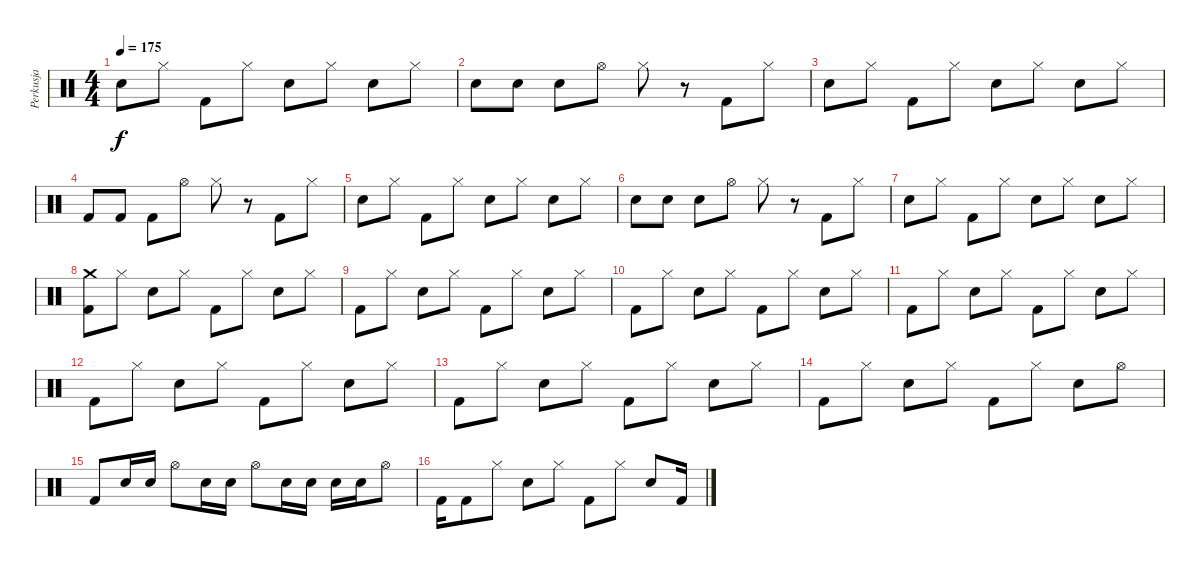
\track ("Perkusja" "Perkusja") {instrument percussion}
\staff {score}
\articulation defaults
\ts (4 4)
\tempo 175
\clef neutral
\ks c "Snare (hit) 2".8{dy f} "Hi-Hat (closed)".8 "Kick (hit) 2".8 "Hi-Hat (closed)".8 "Snare (hit) 2".8 "Hi-Hat (closed)".8 "Snare (hit) 2".8 "Hi-Hat (closed)".8
|
"Snare (hit) 2".8 "Snare (hit) 2".8 "Snare (hit) 2".8 "Hi-Hat (open)".8 "Hi-Hat (closed)".8 r.8 "Kick (hit) 2".8 "Hi-Hat (closed)".8 |
"Snare (hit) 2".8 "Hi-Hat (closed)".8 "Kick (hit) 2".8 "Hi-Hat (closed)".8 "Snare (hit) 2".8 "Hi-Hat (closed)".8 "Snare (hit) 2".8 "Hi-Hat (closed)".8 |
"Kick (hit) 2".8 "Kick (hit) 2".8 "Kick (hit) 2".8 "Hi-Hat (open)".8 "Hi-Hat (closed)".8 r.8 "Kick (hit) 2".8 "Hi-Hat (closed)".8 |
"Snare (hit) 2".8 "Hi-Hat (closed)".8 "Kick (hit) 2".8 "Hi-Hat (closed)".8 "Snare (hit) 2".8 "Hi-Hat (closed)".8 "Snare (hit) 2".8 "Hi-Hat (closed)".8 |
"Snare (hit) 2".8 "Snare (hit) 2".8 "Snare (hit) 2".8 "Hi-Hat (open)".8 "Hi-Hat (closed)".8 r.8 "Kick (hit) 2".8 "Hi-Hat (closed)".8 |
"Snare (hit) 2".8 "Hi-Hat (closed)".8 "Kick (hit) 2".8 "Hi-Hat (closed)".8 "Snare (hit) 2".8 "Hi-Hat (closed)".8 "Snare (hit) 2".8 "Hi-Hat (closed)".8 |
("Kick (hit) 2" "Crash medium (hit)").8 "Hi-Hat (closed)".8 "Snare (hit) 2".8 "Hi-Hat (closed)".8 "Kick (hit) 2".8 "Hi-Hat (closed)".8 "Snare (hit) 2".8 "Hi-Hat (closed)".8 |
"Kick (hit) 2".8 "Hi-Hat (closed)".8 "Snare (hit) 2".8 "Hi-Hat (closed)".8 "Kick (hit) 2".8 "Hi-Hat (closed)".8 "Snare (hit) 2".8 "Hi-Hat (closed)".8 |
"Kick (hit) 2".8 "Hi-Hat (closed)".8 "Snare (hit) 2".8 "Hi-Hat (closed)".8 "Kick (hit) 2".8 "Hi-Hat (closed)".8 "Snare (hit) 2".8 "Hi-Hat (closed)".8 |
"Kick (hit) 2".8 "Hi-Hat (closed)".8 "Snare (hit) 2".8 "Hi-Hat (closed)".8 "Kick (hit) 2".8 "Hi-Hat (closed)".8 "Snare (hit) 2".8 "Hi-Hat (closed)".8 |
"Kick (hit) 2".8 "Hi-Hat (closed)".8 "Snare (hit) 2".8 "Hi-Hat (closed)".8 "Kick (hit) 2".8 "Hi-Hat (closed)".8 "Snare (hit) 2".8 "Hi-Hat (closed)".8 |
"Kick (hit) 2".8 "Hi-Hat (closed)".8 "Snare (hit) 2".8 "Hi-Hat (closed)".8 "Kick (hit) 2".8 "Hi-Hat (closed)".8 "Snare (hit) 2".8 "Hi-Hat (closed)".8 |
"Kick (hit) 2".8 "Hi-Hat (closed)".8 "Snare (hit) 2".8 "Hi-Hat (closed)".8 "Kick (hit) 2".8 "Hi-Hat (closed)".8 "Snare (hit) 2".8 "Hi-Hat (open)".8 |
"Kick (hit) 2".8 "Snare (hit) 2".16 "Snare (hit) 2".16 "Hi-Hat (open)".8 "Snare (hit) 2".16 "Snare (hit) 2".16 "Hi-Hat (open)".8 "Snare (hit) 2".16 "Snare (hit) 2".16 "Snare (hit) 2".16 "Snare (hit) 2".16 "Hi-Hat (open)".8 |
"Kick (hit) 2".16 "Kick (hit) 2".8 "Hi-Hat (closed)".8 "Snare (hit) 2".8 "Hi-Hat (closed)".8 "Kick (hit) 2".8 "Hi-Hat (closed)".8 "Snare (hit) 2".8 "Kick (hit) 2".16
